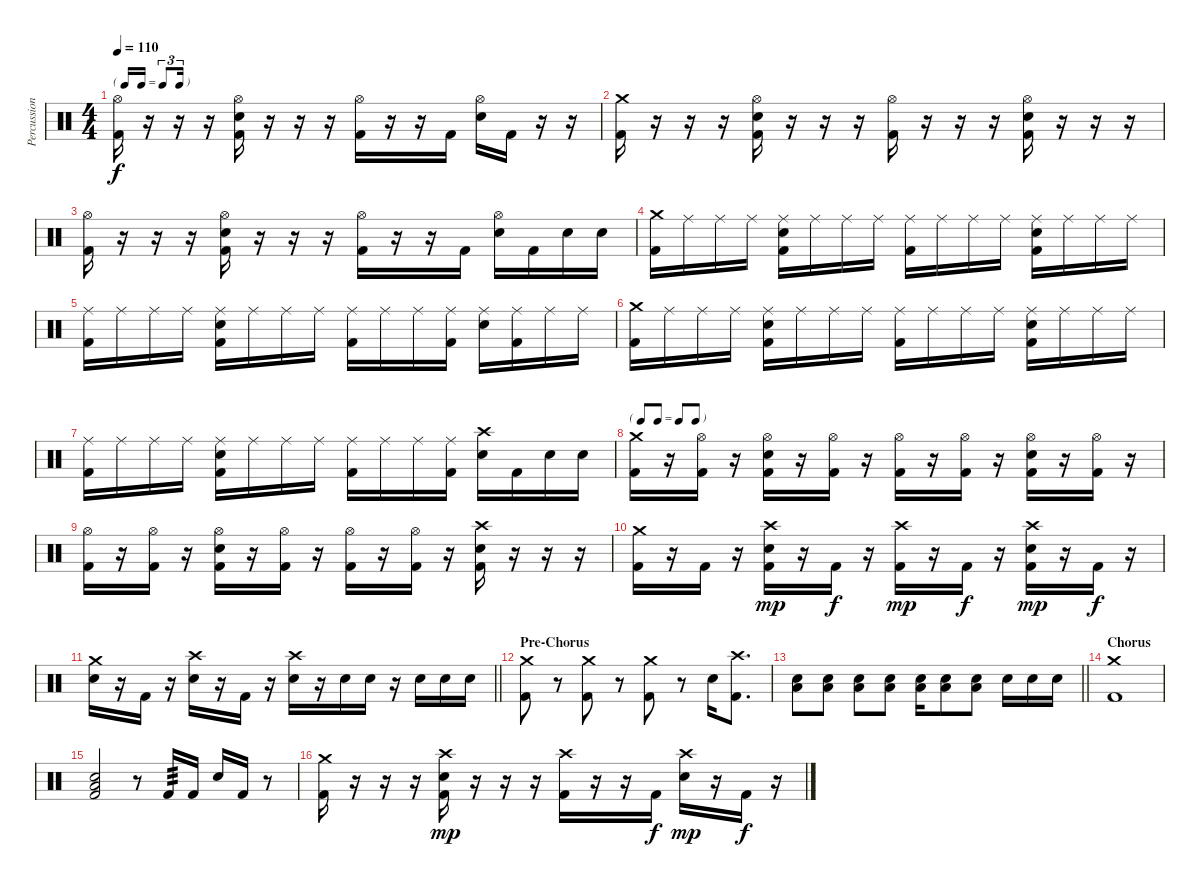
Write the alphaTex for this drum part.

\track ("Percussion" "Percussion") {instrument percussion}
\staff {score}
\articulation defaults
\ts (4 4)
\tf triplet16th
\tempo 110
\clef neutral
\ks c
("Hi-Hat (open)" "Kick (hit) 2").16{dy f} r.16 r.16 r.16 ("Hi-Hat (open)" "Electric Snare (hit)" "Kick (hit) 2").16 r.16 r.16 r.16 ("Hi-Hat (open)" "Kick (hit) 2").16 r.16 r.16 "Kick (hit) 2".16 ("Hi-Hat (open)" "Electric Snare (hit)").16 "Kick (hit) 2".16 r.16 r.16 |
("Crash medium (hit)" "Kick (hit) 2").16 r.16 r.16 r.16 ("Hi-Hat (open)" "Electric Snare (hit)" "Kick (hit) 2").16 r.16 r.16 r.16 ("Hi-Hat (open)" "Kick (hit) 2").16 r.16 r.16 r.16 ("Hi-Hat (open)" "Electric Snare (hit)" "Kick (hit) 2").16 r.16 r.16 r.16 |
("Hi-Hat (open)" "Kick (hit) 2").16 r.16 r.16 r.16 ("Hi-Hat (open)" "Electric Snare (hit)" "Kick (hit) 2").16 r.16 r.16 r.16 ("Hi-Hat (open)" "Kick (hit) 2").16 r.16 r.16 "Kick (hit) 2".16 ("Hi-Hat (open)" "Electric Snare (hit)").16 "Kick (hit) 2".16 "Electric Snare (hit)".16 "Electric Snare (hit)".16 |
("Crash medium (hit)" "Kick (hit) 2").16 "Ride (middle)".16 "Ride (middle)".16 "Ride (middle)".16 ("Ride (middle)" "Electric Snare (hit)" "Kick (hit) 2").16 "Ride (middle)".16 "Ride (middle)".16 "Ride (middle)".16 ("Ride (middle)" "Kick (hit) 2").16 "Ride (middle)".16 "Ride (middle)".16 "Ride (middle)".16 ("Ride (middle)" "Electric Snare (hit)" "Kick (hit) 2").16 "Ride (middle)".16 "Ride (middle)".16 "Ride (middle)".16 |
("Ride (middle)" "Kick (hit) 2").16 "Ride (middle)".16 "Ride (middle)".16 "Ride (middle)".16 ("Ride (middle)" "Electric Snare (hit)" "Kick (hit) 2").16 "Ride (middle)".16 "Ride (middle)".16 "Ride (middle)".16 ("Ride (middle)" "Kick (hit) 2").16 "Ride (middle)".16 "Ride (middle)".16 ("Ride (middle)" "Kick (hit) 2").16 ("Ride (middle)" "Electric Snare (hit)").16 ("Ride (middle)" "Kick (hit) 2").16 "Ride (middle)".16 "Ride (middle)".16 |
("Crash medium (hit)" "Kick (hit) 2").16 "Ride (middle)".16 "Ride (middle)".16 "Ride (middle)".16 ("Ride (middle)" "Electric Snare (hit)" "Kick (hit) 2").16 "Ride (middle)".16 "Ride (middle)".16 "Ride (middle)".16 ("Ride (middle)" "Kick (hit) 2").16 "Ride (middle)".16 "Ride (middle)".16 "Ride (middle)".16 ("Ride (middle)" "Electric Snare (hit)" "Kick (hit) 2").16 "Ride (middle)".16 "Ride (middle)".16 "Ride (middle)".16 |
("Ride (middle)" "Kick (hit) 2").16 "Ride (middle)".16 "Ride (middle)".16 "Ride (middle)".16 ("Ride (middle)" "Electric Snare (hit)" "Kick (hit) 2").16 "Ride (middle)".16 "Ride (middle)".16 "Ride (middle)".16 ("Ride (middle)" "Kick (hit) 2").16 "Ride (middle)".16 "Ride (middle)".16 ("Ride (middle)" "Kick (hit) 2").16 ("Crash high (hit)" "Electric Snare (hit)").16 "Kick (hit) 2".16 "Electric Snare (hit)".16 "Electric Snare (hit)".16 |
\tf none
("Crash medium (hit)" "Kick (hit) 2").16 r.16 ("Hi-Hat (open)" "Kick (hit) 2").16 r.16 ("Hi-Hat (open)" "Electric Snare (hit)" "Kick (hit) 2").16 r.16 ("Hi-Hat (open)" "Kick (hit) 2").16 r.16 ("Hi-Hat (open)" "Kick (hit) 2").16 r.16 ("Hi-Hat (open)" "Kick (hit) 2").16 r.16 ("Hi-Hat (open)" "Electric Snare (hit)" "Kick (hit) 2").16 r.16 ("Hi-Hat (open)" "Kick (hit) 2").16 r.16 |
("Hi-Hat (open)" "Kick (hit) 2").16 r.16 ("Hi-Hat (open)" "Kick (hit) 2").16 r.16 ("Hi-Hat (open)" "Electric Snare (hit)" "Kick (hit) 2").16 r.16 ("Hi-Hat (open)" "Kick (hit) 2").16 r.16 ("Hi-Hat (open)" "Kick (hit) 2").16 r.16 ("Hi-Hat (open)" "Kick (hit) 2").16 r.16 ("Crash high (hit)" "Electric Snare (hit)" "Kick (hit) 2").16 r.16 r.16 r.16 |
("Crash medium (hit)" "Kick (hit) 2").16 r.16 "Kick (hit) 2".16 r.16 ("Crash high (hit)" "Electric Snare (hit)" "Kick (hit) 2").16{dy mp} r.16 "Kick (hit) 2".16{dy f} r.16 ("Crash high (hit)" "Kick (hit) 2").16{dy mp} r.16 "Kick (hit) 2".16{dy f} r.16 ("Crash high (hit)" "Electric Snare (hit)" "Kick (hit) 2").16{dy mp} r.16 "Kick (hit) 2".16{dy f} r.16 |
\barLineRight lightlight
("Crash medium (hit)" "Electric Snare (hit)").16 r.16 "Kick (hit) 2".16 r.16 ("Crash high (hit)" "Electric Snare (hit)").16 r.16 "Kick (hit) 2".16 r.16 ("Crash high (hit)" "Electric Snare (hit)").16 r.16 "Electric Snare (hit)".16 "Electric Snare (hit)".16 r.16 "Electric Snare (hit)".16 "Electric Snare (hit)".16 "Electric Snare (hit)".16 |
\section ("" "Pre-Chorus")
("Crash medium (hit)" "Kick (hit) 2").8 r.8 ("Crash medium (hit)" "Kick (hit) 2").8 r.8 ("Crash medium (hit)" "Kick (hit) 2").8 r.8 "Electric Snare (hit)".16 ("Crash high (hit)" "Kick (hit) 2").8{d} |
\barLineRight lightlight
("Low Floor Tom (hit)" "Electric Snare (hit)").8 ("Low Floor Tom (hit)" "Electric Snare (hit)").8 ("Low Floor Tom (hit)" "Electric Snare (hit)").8 ("Low Floor Tom (hit)" "Electric Snare (hit)").8 ("Low Floor Tom (hit)" "Electric Snare (hit)").16 ("Low Floor Tom (hit)" "Electric Snare (hit)").8 ("Low Floor Tom (hit)" "Electric Snare (hit)").8 "Electric Snare (hit)".16 "Electric Snare (hit)".16 "Electric Snare (hit)".16 |
\section ("" "Chorus")
("Crash medium (hit)" "Kick (hit) 2").1 |
("Low Floor Tom (hit)" "Electric Snare (hit)" "Kick (hit) 2").2 r.8 "Kick (hit) 2".16{tp 3} "Kick (hit) 2".16 "Electric Snare (hit)".16 "Kick (hit) 2".16 r.8 |
("Crash medium (hit)" "Kick (hit) 2").16 r.16 r.16 r.16 ("Crash high (hit)" "Electric Snare (hit)" "Kick (hit) 2").16{dy mp} r.16 r.16 r.16 ("Crash high (hit)" "Kick (hit) 2").16 r.16 r.16 "Kick (hit) 2".16{dy f} ("Crash high (hit)" "Electric Snare (hit)").16{dy mp} r.16 "Kick (hit) 2".16{dy f} r.16
